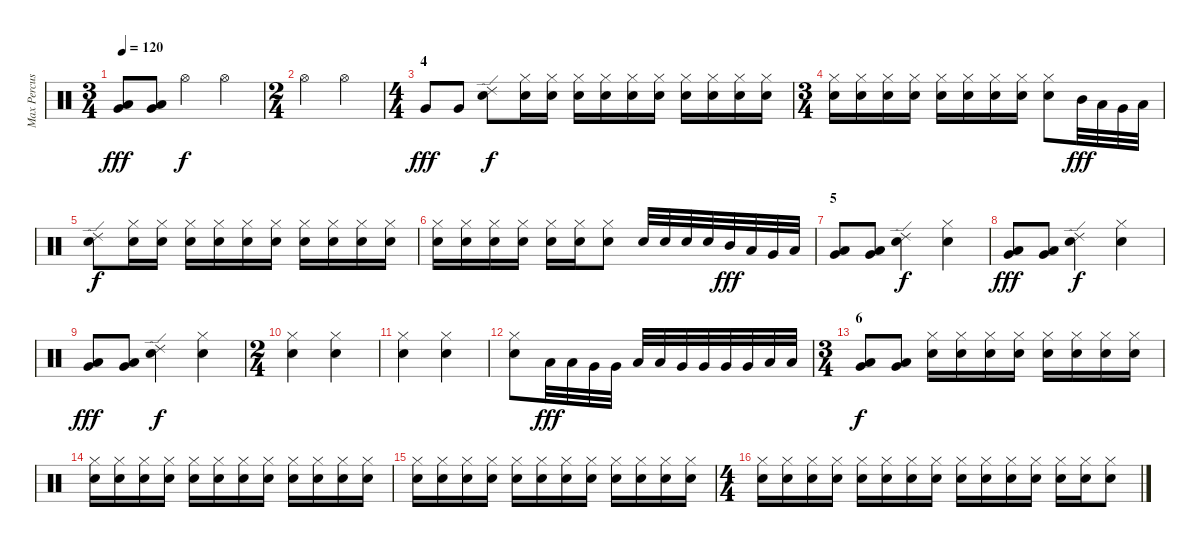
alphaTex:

\track ("Max Percussion" "Max Percus") {instrument percussion}
\staff {score}
\articulation defaults
\ts (3 4)
\tempo 120
\clef neutral
\ks c
("Very Low Tom (hit)" "Low Floor Tom (hit)").8{dy fff} ("Very Low Tom (hit)" "Low Floor Tom (hit)").8 "Hi-Hat (open)".4{dy f} "Hi-Hat (open)".4 |
\ts (2 4)
"Hi-Hat (open)".4 "Hi-Hat (open)".4 |
\ts (4 4)
\section ("" "4")
"Very Low Tom (hit)".8{dy fff} "Very Low Tom (hit)".8 ("Ride (edge) 2" "Snare (hit) 2").8{dy f} ("Hi-Hat (closed)" "Snare (hit) 2").16 ("Hi-Hat (closed)" "Snare (hit) 2").16 ("Hi-Hat (closed)" "Snare (hit) 2").16 ("Hi-Hat (closed)" "Snare (hit) 2").16 ("Hi-Hat (closed)" "Snare (hit) 2").16 ("Hi-Hat (closed)" "Snare (hit) 2").16 ("Hi-Hat (closed)" "Snare (hit) 2").16 ("Hi-Hat (closed)" "Snare (hit) 2").16 ("Hi-Hat (closed)" "Snare (hit) 2").16 ("Hi-Hat (closed)" "Snare (hit) 2").16 |
\ts (3 4)
("Hi-Hat (closed)" "Snare (hit) 2").16 ("Hi-Hat (closed)" "Snare (hit) 2").16 ("Hi-Hat (closed)" "Snare (hit) 2").16 ("Hi-Hat (closed)" "Snare (hit) 2").16 ("Hi-Hat (closed)" "Snare (hit) 2").16 ("Hi-Hat (closed)" "Snare (hit) 2").16 ("Hi-Hat (closed)" "Snare (hit) 2").16 ("Hi-Hat (closed)" "Snare (hit) 2").16 ("Hi-Hat (closed)" "Snare (hit) 2").8 "Mid Tom (hit)".32{dy fff} "Low Tom (hit)".32 "Very Low Tom (hit)".32 "Low Floor Tom (hit)".32 |
("Ride (edge) 2" "Snare (hit) 2").8{dy f} ("Hi-Hat (closed)" "Snare (hit) 2").16 ("Hi-Hat (closed)" "Snare (hit) 2").16 ("Hi-Hat (closed)" "Snare (hit) 2").16 ("Hi-Hat (closed)" "Snare (hit) 2").16 ("Hi-Hat (closed)" "Snare (hit) 2").16 ("Hi-Hat (closed)" "Snare (hit) 2").16 ("Hi-Hat (closed)" "Snare (hit) 2").16 ("Hi-Hat (closed)" "Snare (hit) 2").16 ("Hi-Hat (closed)" "Snare (hit) 2").16 ("Hi-Hat (closed)" "Snare (hit) 2").16 |
("Hi-Hat (closed)" "Snare (hit) 2").16 ("Hi-Hat (closed)" "Snare (hit) 2").16 ("Hi-Hat (closed)" "Snare (hit) 2").16 ("Hi-Hat (closed)" "Snare (hit) 2").16 ("Hi-Hat (closed)" "Snare (hit) 2").16 ("Hi-Hat (closed)" "Snare (hit) 2").16 ("Hi-Hat (closed)" "Snare (hit) 2").8 "Snare (hit) 2".32 "Snare (hit) 2".32 "Snare (hit) 2".32 "Snare (hit) 2".32 "Mid Tom (hit)".32{dy fff} "Low Tom (hit)".32 "Very Low Tom (hit)".32 "Low Floor Tom (hit)".32 |
\section ("" "5")
("Low Floor Tom (hit)" "Very Low Tom (hit)").8 ("Low Floor Tom (hit)" "Very Low Tom (hit)").8 ("Ride (edge) 2" "Snare (hit) 2").4{dy f} ("Hi-Hat (closed)" "Snare (hit) 2").4 |
("Low Floor Tom (hit)" "Very Low Tom (hit)").8{dy fff} ("Low Floor Tom (hit)" "Very Low Tom (hit)").8 ("Ride (edge) 2" "Snare (hit) 2").4{dy f} ("Hi-Hat (closed)" "Snare (hit) 2").4 |
("Low Floor Tom (hit)" "Very Low Tom (hit)").8{dy fff} ("Low Floor Tom (hit)" "Very Low Tom (hit)").8 ("Ride (edge) 2" "Snare (hit) 2").4{dy f} ("Hi-Hat (closed)" "Snare (hit) 2").4 |
\ts (2 4)
("Hi-Hat (closed)" "Snare (hit) 2").4 ("Hi-Hat (closed)" "Snare (hit) 2").4 |
("Hi-Hat (closed)" "Snare (hit) 2").4 ("Hi-Hat (closed)" "Snare (hit) 2").4 |
("Hi-Hat (closed)" "Snare (hit) 2").8 "Low Tom (hit)".32{dy fff} "Low Tom (hit)".32 "Very Low Tom (hit)".32 "Very Low Tom (hit)".32 "Low Tom (hit)".32 "Low Tom (hit)".32 "Very Low Tom (hit)".32 "Very Low Tom (hit)".32 "Very Low Tom (hit)".32 "Very Low Tom (hit)".32 "Low Floor Tom (hit)".32 "Low Floor Tom (hit)".32 |
\ts (3 4)
\section ("" "6")
("Very Low Tom (hit)" "Low Floor Tom (hit)").8{dy f} ("Very Low Tom (hit)" "Low Floor Tom (hit)").8 ("Hi-Hat (closed)" "Snare (hit) 2").16 ("Hi-Hat (closed)" "Snare (hit) 2").16 ("Hi-Hat (closed)" "Snare (hit) 2").16 ("Hi-Hat (closed)" "Snare (hit) 2").16 ("Hi-Hat (closed)" "Snare (hit) 2").16 ("Hi-Hat (closed)" "Snare (hit) 2").16 ("Hi-Hat (closed)" "Snare (hit) 2").16 ("Hi-Hat (closed)" "Snare (hit) 2").16 |
("Hi-Hat (closed)" "Snare (hit) 2").16 ("Hi-Hat (closed)" "Snare (hit) 2").16 ("Hi-Hat (closed)" "Snare (hit) 2").16 ("Hi-Hat (closed)" "Snare (hit) 2").16 ("Hi-Hat (closed)" "Snare (hit) 2").16 ("Hi-Hat (closed)" "Snare (hit) 2").16 ("Hi-Hat (closed)" "Snare (hit) 2").16 ("Hi-Hat (closed)" "Snare (hit) 2").16 ("Hi-Hat (closed)" "Snare (hit) 2").16 ("Hi-Hat (closed)" "Snare (hit) 2").16 ("Hi-Hat (closed)" "Snare (hit) 2").16 ("Hi-Hat (closed)" "Snare (hit) 2").16 |
("Hi-Hat (closed)" "Snare (hit) 2").16 ("Hi-Hat (closed)" "Snare (hit) 2").16 ("Hi-Hat (closed)" "Snare (hit) 2").16 ("Hi-Hat (closed)" "Snare (hit) 2").16 ("Hi-Hat (closed)" "Snare (hit) 2").16 ("Hi-Hat (closed)" "Snare (hit) 2").16 ("Hi-Hat (closed)" "Snare (hit) 2").16 ("Hi-Hat (closed)" "Snare (hit) 2").16 ("Hi-Hat (closed)" "Snare (hit) 2").16 ("Hi-Hat (closed)" "Snare (hit) 2").16 ("Hi-Hat (closed)" "Snare (hit) 2").16 ("Hi-Hat (closed)" "Snare (hit) 2").16 |
\ts (4 4)
("Hi-Hat (closed)" "Snare (hit) 2").16 ("Hi-Hat (closed)" "Snare (hit) 2").16 ("Hi-Hat (closed)" "Snare (hit) 2").16 ("Hi-Hat (closed)" "Snare (hit) 2").16 ("Hi-Hat (closed)" "Snare (hit) 2").16 ("Hi-Hat (closed)" "Snare (hit) 2").16 ("Hi-Hat (closed)" "Snare (hit) 2").16 ("Hi-Hat (closed)" "Snare (hit) 2").16 ("Hi-Hat (closed)" "Snare (hit) 2").16 ("Hi-Hat (closed)" "Snare (hit) 2").16 ("Hi-Hat (closed)" "Snare (hit) 2").16 ("Hi-Hat (closed)" "Snare (hit) 2").16 ("Hi-Hat (closed)" "Snare (hit) 2").16 ("Hi-Hat (closed)" "Snare (hit) 2").16 ("Hi-Hat (closed)" "Snare (hit) 2").8
